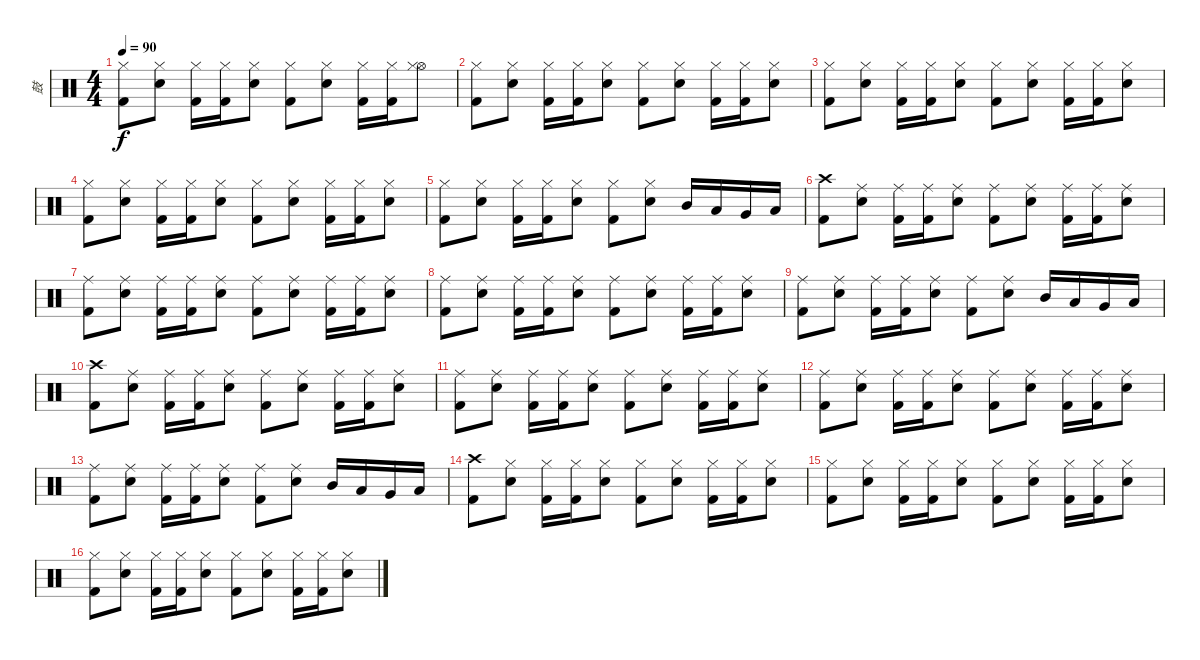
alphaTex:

\track ("鼓" "鼓") {instrument percussion}
\staff {score}
\articulation defaults
\ts (4 4)
\tempo 90
\clef neutral
\ks c
("Kick (hit) 2" "Hi-Hat (closed)").8{dy f} ("Electric Snare (hit)" "Hi-Hat (closed)").8 ("Kick (hit) 2" "Hi-Hat (closed)").16 ("Kick (hit) 2" "Hi-Hat (closed)").16 ("Electric Snare (hit)" "Hi-Hat (closed)").8 ("Kick (hit) 2" "Hi-Hat (closed)").8 ("Electric Snare (hit)" "Hi-Hat (closed)").8 ("Kick (hit) 2" "Hi-Hat (closed)").16 ("Kick (hit) 2" "Hi-Hat (closed)").16 ("Hi-Hat (open)" "Hi-Hat (closed)").8 |
("Kick (hit) 2" "Hi-Hat (closed)").8 ("Electric Snare (hit)" "Hi-Hat (closed)").8 ("Kick (hit) 2" "Hi-Hat (closed)").16 ("Kick (hit) 2" "Hi-Hat (closed)").16 ("Electric Snare (hit)" "Hi-Hat (closed)").8 ("Kick (hit) 2" "Hi-Hat (closed)").8 ("Electric Snare (hit)" "Hi-Hat (closed)").8 ("Kick (hit) 2" "Hi-Hat (closed)").16 ("Kick (hit) 2" "Hi-Hat (closed)").16 ("Electric Snare (hit)" "Hi-Hat (closed)").8 |
("Kick (hit) 2" "Hi-Hat (closed)").8 ("Electric Snare (hit)" "Hi-Hat (closed)").8 ("Kick (hit) 2" "Hi-Hat (closed)").16 ("Kick (hit) 2" "Hi-Hat (closed)").16 ("Electric Snare (hit)" "Hi-Hat (closed)").8 ("Kick (hit) 2" "Hi-Hat (closed)").8 ("Electric Snare (hit)" "Hi-Hat (closed)").8 ("Kick (hit) 2" "Hi-Hat (closed)").16 ("Kick (hit) 2" "Hi-Hat (closed)").16 ("Electric Snare (hit)" "Hi-Hat (closed)").8 |
("Kick (hit) 2" "Hi-Hat (closed)").8 ("Electric Snare (hit)" "Hi-Hat (closed)").8 ("Kick (hit) 2" "Hi-Hat (closed)").16 ("Kick (hit) 2" "Hi-Hat (closed)").16 ("Electric Snare (hit)" "Hi-Hat (closed)").8 ("Kick (hit) 2" "Hi-Hat (closed)").8 ("Electric Snare (hit)" "Hi-Hat (closed)").8 ("Kick (hit) 2" "Hi-Hat (closed)").16 ("Kick (hit) 2" "Hi-Hat (closed)").16 ("Electric Snare (hit)" "Hi-Hat (closed)").8 |
("Kick (hit) 2" "Hi-Hat (closed)").8 ("Electric Snare (hit)" "Hi-Hat (closed)").8 ("Kick (hit) 2" "Hi-Hat (closed)").16 ("Kick (hit) 2" "Hi-Hat (closed)").16 ("Electric Snare (hit)" "Hi-Hat (closed)").8 ("Kick (hit) 2" "Hi-Hat (closed)").8 ("Electric Snare (hit)" "Hi-Hat (closed)").8 "Mid Tom (hit)".16 "Low Tom (hit)".16 "Very Low Tom (hit)".16 "Low Floor Tom (hit)".16 |
("Kick (hit) 2" "Crash high (hit)").8 ("Electric Snare (hit)" "Ride (middle)").8 ("Kick (hit) 2" "Ride (middle)").16 ("Kick (hit) 2" "Ride (middle)").16 ("Electric Snare (hit)" "Ride (middle)").8 ("Kick (hit) 2" "Ride (middle)").8 ("Electric Snare (hit)" "Ride (middle)").8 ("Kick (hit) 2" "Ride (middle)").16 ("Kick (hit) 2" "Ride (middle)").16 ("Electric Snare (hit)" "Ride (middle)").8 |
("Kick (hit) 2" "Ride (middle)").8 ("Electric Snare (hit)" "Ride (middle)").8 ("Kick (hit) 2" "Ride (middle)").16 ("Kick (hit) 2" "Ride (middle)").16 ("Electric Snare (hit)" "Ride (middle)").8 ("Kick (hit) 2" "Ride (middle)").8 ("Electric Snare (hit)" "Ride (middle)").8 ("Kick (hit) 2" "Ride (middle)").16 ("Kick (hit) 2" "Ride (middle)").16 ("Electric Snare (hit)" "Ride (middle)").8 |
("Kick (hit) 2" "Ride (middle)").8 ("Electric Snare (hit)" "Ride (middle)").8 ("Kick (hit) 2" "Ride (middle)").16 ("Kick (hit) 2" "Ride (middle)").16 ("Electric Snare (hit)" "Ride (middle)").8 ("Kick (hit) 2" "Ride (middle)").8 ("Electric Snare (hit)" "Ride (middle)").8 ("Kick (hit) 2" "Ride (middle)").16 ("Kick (hit) 2" "Ride (middle)").16 ("Electric Snare (hit)" "Ride (middle)").8 |
("Kick (hit) 2" "Ride (middle)").8 ("Electric Snare (hit)" "Ride (middle)").8 ("Kick (hit) 2" "Ride (middle)").16 ("Kick (hit) 2" "Ride (middle)").16 ("Electric Snare (hit)" "Ride (middle)").8 ("Kick (hit) 2" "Ride (middle)").8 ("Electric Snare (hit)" "Ride (middle)").8 "Mid Tom (hit)".16 "Low Tom (hit)".16 "Very Low Tom (hit)".16 "Low Floor Tom (hit)".16 |
("Kick (hit) 2" "Crash high (hit)").8 ("Electric Snare (hit)" "Ride (middle)").8 ("Kick (hit) 2" "Ride (middle)").16 ("Kick (hit) 2" "Ride (middle)").16 ("Electric Snare (hit)" "Ride (middle)").8 ("Kick (hit) 2" "Ride (middle)").8 ("Electric Snare (hit)" "Ride (middle)").8 ("Kick (hit) 2" "Ride (middle)").16 ("Kick (hit) 2" "Ride (middle)").16 ("Electric Snare (hit)" "Ride (middle)").8 |
("Kick (hit) 2" "Ride (middle)").8 ("Electric Snare (hit)" "Ride (middle)").8 ("Kick (hit) 2" "Ride (middle)").16 ("Kick (hit) 2" "Ride (middle)").16 ("Electric Snare (hit)" "Ride (middle)").8 ("Kick (hit) 2" "Ride (middle)").8 ("Electric Snare (hit)" "Ride (middle)").8 ("Kick (hit) 2" "Ride (middle)").16 ("Kick (hit) 2" "Ride (middle)").16 ("Electric Snare (hit)" "Ride (middle)").8 |
("Kick (hit) 2" "Ride (middle)").8 ("Electric Snare (hit)" "Ride (middle)").8 ("Kick (hit) 2" "Ride (middle)").16 ("Kick (hit) 2" "Ride (middle)").16 ("Electric Snare (hit)" "Ride (middle)").8 ("Kick (hit) 2" "Ride (middle)").8 ("Electric Snare (hit)" "Ride (middle)").8 ("Kick (hit) 2" "Ride (middle)").16 ("Kick (hit) 2" "Ride (middle)").16 ("Electric Snare (hit)" "Ride (middle)").8 |
("Kick (hit) 2" "Ride (middle)").8 ("Electric Snare (hit)" "Ride (middle)").8 ("Kick (hit) 2" "Ride (middle)").16 ("Kick (hit) 2" "Ride (middle)").16 ("Electric Snare (hit)" "Ride (middle)").8 ("Kick (hit) 2" "Ride (middle)").8 ("Electric Snare (hit)" "Ride (middle)").8 "Mid Tom (hit)".16 "Low Tom (hit)".16 "Very Low Tom (hit)".16 "Low Floor Tom (hit)".16 |
("Kick (hit) 2" "Crash high (hit)").8 ("Electric Snare (hit)" "Hi-Hat (closed)").8 ("Kick (hit) 2" "Hi-Hat (closed)").16 ("Kick (hit) 2" "Hi-Hat (closed)").16 ("Electric Snare (hit)" "Hi-Hat (closed)").8 ("Kick (hit) 2" "Hi-Hat (closed)").8 ("Electric Snare (hit)" "Hi-Hat (closed)").8 ("Kick (hit) 2" "Hi-Hat (closed)").16 ("Kick (hit) 2" "Hi-Hat (closed)").16 ("Electric Snare (hit)" "Hi-Hat (closed)").8 |
("Kick (hit) 2" "Hi-Hat (closed)").8 ("Electric Snare (hit)" "Hi-Hat (closed)").8 ("Kick (hit) 2" "Hi-Hat (closed)").16 ("Kick (hit) 2" "Hi-Hat (closed)").16 ("Electric Snare (hit)" "Hi-Hat (closed)").8 ("Kick (hit) 2" "Hi-Hat (closed)").8 ("Electric Snare (hit)" "Hi-Hat (closed)").8 ("Kick (hit) 2" "Hi-Hat (closed)").16 ("Kick (hit) 2" "Hi-Hat (closed)").16 ("Electric Snare (hit)" "Hi-Hat (closed)").8 |
("Kick (hit) 2" "Hi-Hat (closed)").8 ("Electric Snare (hit)" "Hi-Hat (closed)").8 ("Kick (hit) 2" "Hi-Hat (closed)").16 ("Kick (hit) 2" "Hi-Hat (closed)").16 ("Electric Snare (hit)" "Hi-Hat (closed)").8 ("Kick (hit) 2" "Hi-Hat (closed)").8 ("Electric Snare (hit)" "Hi-Hat (closed)").8 ("Kick (hit) 2" "Hi-Hat (closed)").16 ("Kick (hit) 2" "Hi-Hat (closed)").16 ("Electric Snare (hit)" "Hi-Hat (closed)").8
